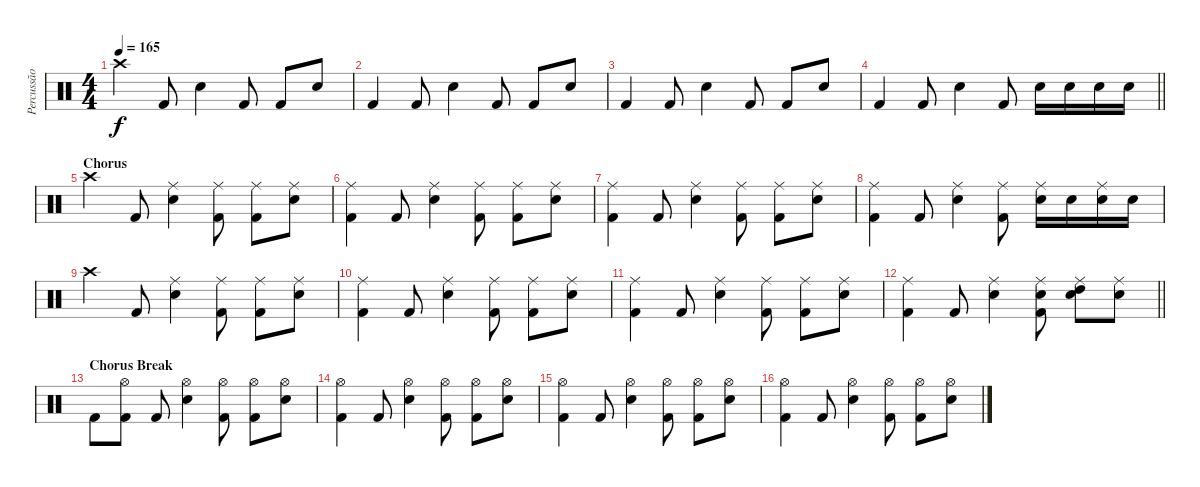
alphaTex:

\track ("Percussão" "Percussão") {instrument percussion}
\staff {score}
\articulation defaults
\ts (4 4)
\tempo 165
\clef neutral
\ks c "Crash high (hit)".4{dy f} "Kick (hit) 2".8 "Snare (hit) 2".4 "Kick (hit) 2".8 "Kick (hit) 2".8 "Snare (hit) 2".8
|
"Kick (hit) 2".4 "Kick (hit) 2".8 "Snare (hit) 2".4 "Kick (hit) 2".8 "Kick (hit) 2".8 "Snare (hit) 2".8 |
"Kick (hit) 2".4 "Kick (hit) 2".8 "Snare (hit) 2".4 "Kick (hit) 2".8 "Kick (hit) 2".8 "Snare (hit) 2".8 |
\barLineRight lightlight "Kick (hit) 2".4 "Kick (hit) 2".8 "Snare (hit) 2".4 "Kick (hit) 2".8 "Snare (hit) 2".16 "Snare (hit) 2".16 "Snare (hit) 2".16 "Snare (hit) 2".16
|
\section ("" "Chorus")
"Crash high (hit)".4 "Kick (hit) 2".8 ("Ride (middle)" "Snare (hit) 2").4 ("Ride (middle)" "Kick (hit) 2").8 ("Ride (middle)" "Kick (hit) 2").8 ("Ride (middle)" "Snare (hit) 2").8 |
("Ride (middle)" "Kick (hit) 2").4 "Kick (hit) 2".8 ("Ride (middle)" "Snare (hit) 2").4 ("Ride (middle)" "Kick (hit) 2").8 ("Ride (middle)" "Kick (hit) 2").8 ("Ride (middle)" "Snare (hit) 2").8 |
("Ride (middle)" "Kick (hit) 2").4 "Kick (hit) 2".8 ("Ride (middle)" "Snare (hit) 2").4 ("Ride (middle)" "Kick (hit) 2").8 ("Ride (middle)" "Kick (hit) 2").8 ("Ride (middle)" "Snare (hit) 2").8 |
("Ride (middle)" "Kick (hit) 2").4 "Kick (hit) 2".8 ("Ride (middle)" "Snare (hit) 2").4 ("Ride (middle)" "Kick (hit) 2").8 ("Ride (middle)" "Snare (hit) 2").16 "Snare (hit) 2".16 ("Ride (middle)" "Snare (hit) 2").16 "Snare (hit) 2".16 |
"Crash high (hit)".4 "Kick (hit) 2".8 ("Ride (middle)" "Snare (hit) 2").4 ("Ride (middle)" "Kick (hit) 2").8 ("Ride (middle)" "Kick (hit) 2").8 ("Ride (middle)" "Snare (hit) 2").8 |
("Ride (middle)" "Kick (hit) 2").4 "Kick (hit) 2".8 ("Ride (middle)" "Snare (hit) 2").4 ("Ride (middle)" "Kick (hit) 2").8 ("Ride (middle)" "Kick (hit) 2").8 ("Ride (middle)" "Snare (hit) 2").8 |
("Ride (middle)" "Kick (hit) 2").4 "Kick (hit) 2".8 ("Ride (middle)" "Snare (hit) 2").4 ("Ride (middle)" "Kick (hit) 2").8 ("Ride (middle)" "Kick (hit) 2").8 ("Ride (middle)" "Snare (hit) 2").8 |
\barLineRight lightlight
("Ride (middle)" "Kick (hit) 2").4 "Kick (hit) 2".8 ("Ride (middle)" "Snare (hit) 2").4 ("Ride (middle)" "Snare (hit) 2" "Kick (hit) 2").8 ("Ride (middle)" "Snare (hit) 2" "High Tom (hit)").8 ("Ride (middle)" "Snare (hit) 2").8 |
\section ("" "Chorus Break")
"Kick (hit) 2".8 ("Hi-Hat (open)" "Kick (hit) 2").8 "Kick (hit) 2".8 ("Hi-Hat (open)" "Snare (hit) 2").4 ("Hi-Hat (open)" "Kick (hit) 2").8 ("Hi-Hat (open)" "Kick (hit) 2").8 ("Hi-Hat (open)" "Snare (hit) 2").8 |
("Hi-Hat (open)" "Kick (hit) 2").4 "Kick (hit) 2".8 ("Hi-Hat (open)" "Snare (hit) 2").4 ("Hi-Hat (open)" "Kick (hit) 2").8 ("Hi-Hat (open)" "Kick (hit) 2").8 ("Hi-Hat (open)" "Snare (hit) 2").8 |
("Hi-Hat (open)" "Kick (hit) 2").4 "Kick (hit) 2".8 ("Hi-Hat (open)" "Snare (hit) 2").4 ("Hi-Hat (open)" "Kick (hit) 2").8 ("Hi-Hat (open)" "Kick (hit) 2").8 ("Hi-Hat (open)" "Snare (hit) 2").8 |
("Hi-Hat (open)" "Kick (hit) 2").4 "Kick (hit) 2".8 ("Hi-Hat (open)" "Snare (hit) 2").4 ("Hi-Hat (open)" "Kick (hit) 2").8 ("Hi-Hat (open)" "Kick (hit) 2").8 ("Hi-Hat (open)" "Snare (hit) 2").8
